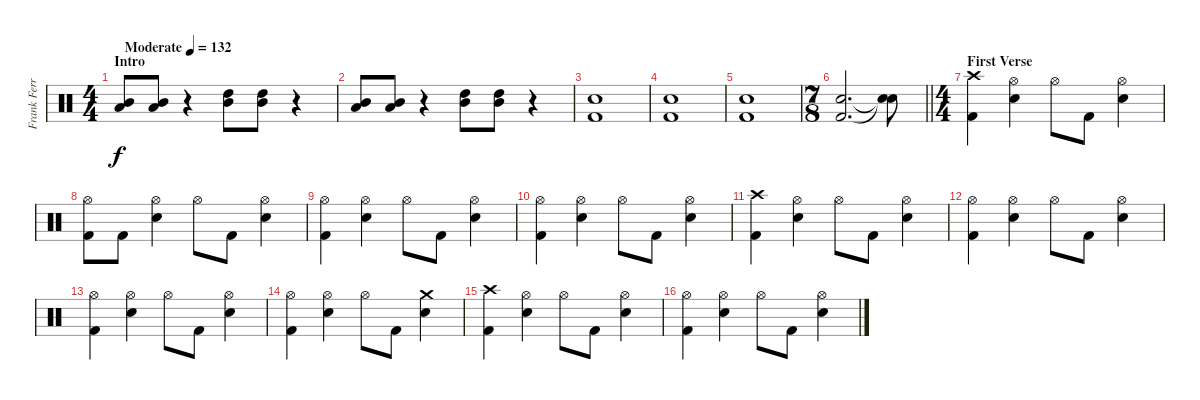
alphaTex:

\track ("Frank Ferrer" "Frank Ferr") {instrument percussion}
\staff {score}
\articulation defaults
\ts (4 4)
\section ("" "Intro")
\tempo (132 "Moderate")
\clef neutral
\ks c
("Low Tom (hit)" "Mid Tom (hit)").8{dy f} ("Low Tom (hit)" "Mid Tom (hit)").8 r.4 ("High Tom (hit)" "Mid Tom (hit)").8 ("High Tom (hit)" "Mid Tom (hit)").8 r.4 |
("Low Tom (hit)" "Mid Tom (hit)").8 ("Low Tom (hit)" "Mid Tom (hit)").8 r.4 ("High Tom (hit)" "Mid Tom (hit)").8 ("High Tom (hit)" "Mid Tom (hit)").8 r.4 |
("Electric Snare (hit)" "Kick (hit) 2").1 |
("Electric Snare (hit)" "Kick (hit) 2").1 |
("Electric Snare (hit)" "Kick (hit) 2").1 |
\ts (7 8)
\barLineRight lightlight
("Electric Snare (hit)" "Kick (hit) 2").2{d} ("Snare (hit)"{t} "Snare (hit)"{t}).8 |
\ts (4 4)
\section ("" "First Verse")
("Crash high (hit)" "Kick (hit) 2").4 ("Hi-Hat (open)" "Electric Snare (hit)").4 "Hi-Hat (open)".8 "Kick (hit) 2".8 ("Hi-Hat (open)" "Electric Snare (hit)").4 |
("Hi-Hat (open)" "Kick (hit) 2").8 "Kick (hit) 2".8 ("Hi-Hat (open)" "Electric Snare (hit)").4 "Hi-Hat (open)".8 "Kick (hit) 2".8 ("Hi-Hat (open)" "Electric Snare (hit)").4 |
("Hi-Hat (open)" "Kick (hit) 2").4 ("Hi-Hat (open)" "Electric Snare (hit)").4 "Hi-Hat (open)".8 "Kick (hit) 2".8 ("Hi-Hat (open)" "Electric Snare (hit)").4 |
("Hi-Hat (open)" "Kick (hit) 2").4 ("Hi-Hat (open)" "Electric Snare (hit)").4 "Hi-Hat (open)".8 "Kick (hit) 2".8 ("Hi-Hat (open)" "Electric Snare (hit)").4 |
("Crash high (hit)" "Kick (hit) 2").4 ("Hi-Hat (open)" "Electric Snare (hit)").4 "Hi-Hat (open)".8 "Kick (hit) 2".8 ("Hi-Hat (open)" "Electric Snare (hit)").4 |
("Hi-Hat (open)" "Kick (hit) 2").4 ("Hi-Hat (open)" "Electric Snare (hit)").4 "Hi-Hat (open)".8 "Kick (hit) 2".8 ("Hi-Hat (open)" "Electric Snare (hit)").4 |
("Hi-Hat (open)" "Kick (hit) 2").4 ("Hi-Hat (open)" "Electric Snare (hit)").4 "Hi-Hat (open)".8 "Kick (hit) 2".8 ("Hi-Hat (open)" "Electric Snare (hit)").4 |
("Hi-Hat (open)" "Kick (hit) 2").4 ("Hi-Hat (open)" "Electric Snare (hit)").4 "Hi-Hat (open)".8 "Kick (hit) 2".8 ("Crash medium (hit)" "Electric Snare (hit)").4 |
("Crash high (hit)" "Kick (hit) 2").4 ("Hi-Hat (open)" "Electric Snare (hit)").4 "Hi-Hat (open)".8 "Kick (hit) 2".8 ("Hi-Hat (open)" "Electric Snare (hit)").4 |
("Hi-Hat (open)" "Kick (hit) 2").4 ("Hi-Hat (open)" "Electric Snare (hit)").4 "Hi-Hat (open)".8 "Kick (hit) 2".8 ("Hi-Hat (open)" "Electric Snare (hit)").4
